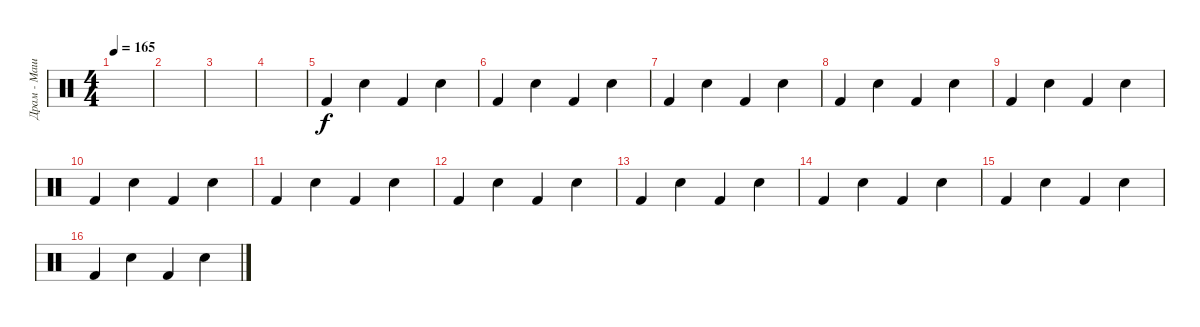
\track ("Драм - Машина" "Драм - Маш") {instrument percussion}
\staff {score}
\articulation defaults
\ts (4 4)
\tempo 165
\clef neutral
\ks c
|
|
|
|
"Kick (hit) 2".4 "Snare (hit) 2".4 "Kick (hit) 2".4 "Snare (hit) 2".4 |
"Kick (hit) 2".4 "Snare (hit) 2".4 "Kick (hit) 2".4 "Snare (hit) 2".4 |
"Kick (hit) 2".4 "Snare (hit) 2".4 "Kick (hit) 2".4 "Snare (hit) 2".4 |
"Kick (hit) 2".4 "Snare (hit) 2".4 "Kick (hit) 2".4 "Snare (hit) 2".4 |
"Kick (hit) 2".4 "Snare (hit) 2".4 "Kick (hit) 2".4 "Snare (hit) 2".4 |
"Kick (hit) 2".4 "Snare (hit) 2".4 "Kick (hit) 2".4 "Snare (hit) 2".4 |
"Kick (hit) 2".4 "Snare (hit) 2".4 "Kick (hit) 2".4 "Snare (hit) 2".4 |
"Kick (hit) 2".4 "Snare (hit) 2".4 "Kick (hit) 2".4 "Snare (hit) 2".4 |
"Kick (hit) 2".4 "Snare (hit) 2".4 "Kick (hit) 2".4 "Snare (hit) 2".4 |
"Kick (hit) 2".4 "Snare (hit) 2".4 "Kick (hit) 2".4 "Snare (hit) 2".4 |
"Kick (hit) 2".4 "Snare (hit) 2".4 "Kick (hit) 2".4 "Snare (hit) 2".4 |
"Kick (hit) 2".4 "Snare (hit) 2".4 "Kick (hit) 2".4 "Snare (hit) 2".4
